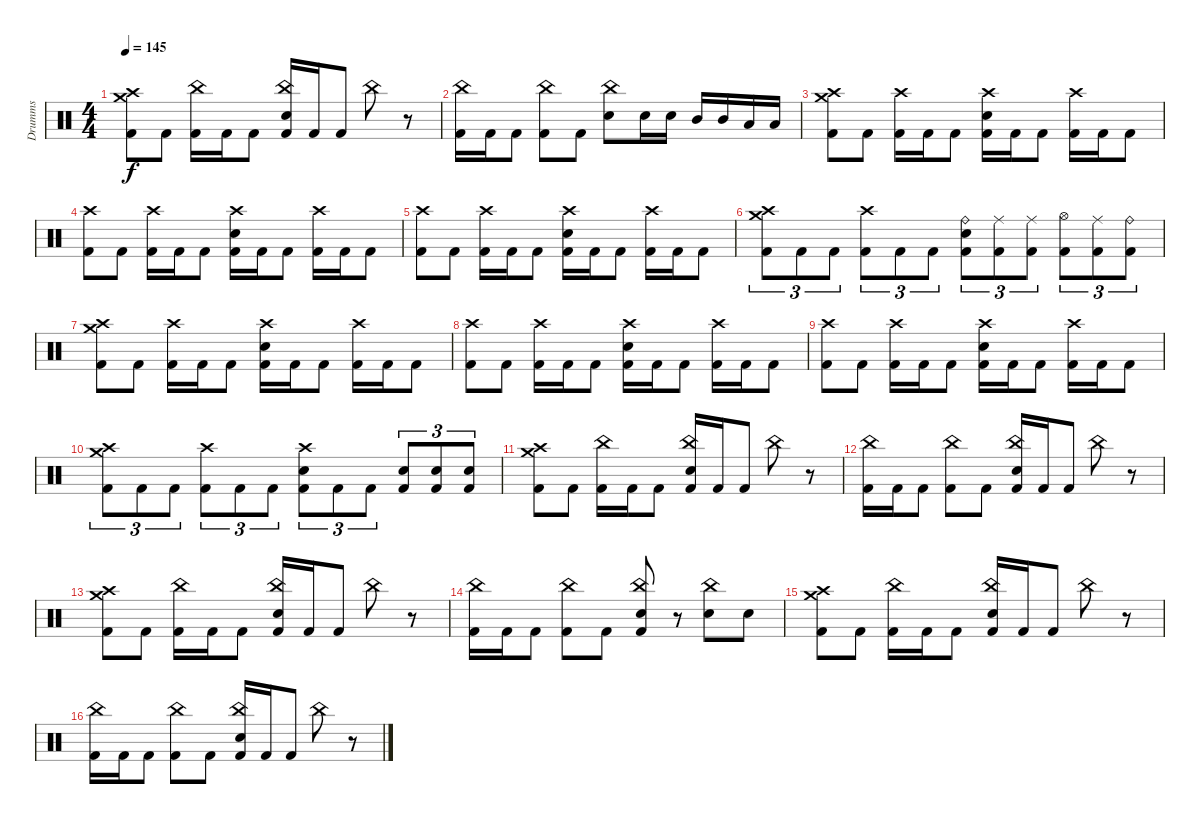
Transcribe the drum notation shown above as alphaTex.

\track ("Drumms" "Drumms") {instrument percussion}
\staff {score}
\articulation defaults
\ts (4 4)
\tempo 145
\clef neutral
\ks c
("Crash high (hit)" "Crash medium (hit)" "Kick (hit) 2").8{dy f} "Kick (hit) 2".8 ("China (hit)" "Kick (hit) 2").16 "Kick (hit) 2".16 "Kick (hit) 2".8 ("China (hit)" "Electric Snare (hit)" "Kick (hit) 2").16 "Kick (hit) 2".16 "Kick (hit) 2".8 "China (hit)".8 r.8 |
("China (hit)" "Kick (hit) 2").16 "Kick (hit) 2".16 "Kick (hit) 2".8 ("China (hit)" "Kick (hit) 2").8 "Kick (hit) 2".8 ("China (hit)" "Electric Snare (hit)").8 "Electric Snare (hit)".16 "Electric Snare (hit)".16 "Mid Tom (hit)".16 "Mid Tom (hit)".16 "Low Tom (hit)".16 "Low Tom (hit)".16 |
("Crash high (hit)" "Crash medium (hit)" "Kick (hit) 2").8 "Kick (hit) 2".8 ("Crash high (hit)" "Kick (hit) 2").16 "Kick (hit) 2".16 "Kick (hit) 2".8 ("Crash high (hit)" "Electric Snare (hit)" "Kick (hit) 2").16 "Kick (hit) 2".16 "Kick (hit) 2".8 ("Crash high (hit)" "Kick (hit) 2").16 "Kick (hit) 2".16 "Kick (hit) 2".8 |
("Crash high (hit)" "Kick (hit) 2").8 "Kick (hit) 2".8 ("Crash high (hit)" "Kick (hit) 2").16 "Kick (hit) 2".16 "Kick (hit) 2".8 ("Crash high (hit)" "Electric Snare (hit)" "Kick (hit) 2").16 "Kick (hit) 2".16 "Kick (hit) 2".8 ("Crash high (hit)" "Kick (hit) 2").16 "Kick (hit) 2".16 "Kick (hit) 2".8 |
("Crash high (hit)" "Kick (hit) 2").8 "Kick (hit) 2".8 ("Crash high (hit)" "Kick (hit) 2").16 "Kick (hit) 2".16 "Kick (hit) 2".8 ("Crash high (hit)" "Electric Snare (hit)" "Kick (hit) 2").16 "Kick (hit) 2".16 "Kick (hit) 2".8 ("Crash high (hit)" "Kick (hit) 2").16 "Kick (hit) 2".16 "Kick (hit) 2".8 |
("Crash medium (hit)" "Crash high (hit)" "Kick (hit) 2").8{tu (3 2)} "Kick (hit) 2".8{tu (3 2)} "Kick (hit) 2".8{tu (3 2)} ("Crash high (hit)" "Kick (hit) 2").8{tu (3 2)} "Kick (hit) 2".8{tu (3 2)} "Kick (hit) 2".8{tu (3 2)} ("Ride (bell)" "Electric Snare (hit)" "Kick (hit) 2").8{tu (3 2)} ("Ride (middle)" "Kick (hit) 2").8{tu (3 2)} ("Ride (middle)" "Kick (hit) 2").8{tu (3 2)} ("Hi-Hat (open)" "Kick (hit) 2").8{tu (3 2)} ("Ride (middle)" "Kick (hit) 2").8{tu (3 2)} ("Ride (bell)" "Kick (hit) 2").8{tu (3 2)} |
("Crash high (hit)" "Crash medium (hit)" "Kick (hit) 2").8 "Kick (hit) 2".8 ("Crash high (hit)" "Kick (hit) 2").16 "Kick (hit) 2".16 "Kick (hit) 2".8 ("Crash high (hit)" "Electric Snare (hit)" "Kick (hit) 2").16 "Kick (hit) 2".16 "Kick (hit) 2".8 ("Crash high (hit)" "Kick (hit) 2").16 "Kick (hit) 2".16 "Kick (hit) 2".8 |
("Crash high (hit)" "Kick (hit) 2").8 "Kick (hit) 2".8 ("Crash high (hit)" "Kick (hit) 2").16 "Kick (hit) 2".16 "Kick (hit) 2".8 ("Crash high (hit)" "Electric Snare (hit)" "Kick (hit) 2").16 "Kick (hit) 2".16 "Kick (hit) 2".8 ("Crash high (hit)" "Kick (hit) 2").16 "Kick (hit) 2".16 "Kick (hit) 2".8 |
("Crash high (hit)" "Kick (hit) 2").8 "Kick (hit) 2".8 ("Crash high (hit)" "Kick (hit) 2").16 "Kick (hit) 2".16 "Kick (hit) 2".8 ("Crash high (hit)" "Electric Snare (hit)" "Kick (hit) 2").16 "Kick (hit) 2".16 "Kick (hit) 2".8 ("Crash high (hit)" "Kick (hit) 2").16 "Kick (hit) 2".16 "Kick (hit) 2".8 |
("Crash medium (hit)" "Crash high (hit)" "Kick (hit) 2").8{tu (3 2)} "Kick (hit) 2".8{tu (3 2)} "Kick (hit) 2".8{tu (3 2)} ("Crash high (hit)" "Kick (hit) 2").8{tu (3 2)} "Kick (hit) 2".8{tu (3 2)} "Kick (hit) 2".8{tu (3 2)} ("Crash high (hit)" "Electric Snare (hit)" "Kick (hit) 2").8{tu (3 2)} "Kick (hit) 2".8{tu (3 2)} "Kick (hit) 2".8{tu (3 2)} ("Electric Snare (hit)" "Kick (hit) 2").8{tu (3 2)} ("Electric Snare (hit)" "Kick (hit) 2").8{tu (3 2)} ("Electric Snare (hit)" "Kick (hit) 2").8{tu (3 2)} |
("Crash high (hit)" "Crash medium (hit)" "Kick (hit) 2").8 "Kick (hit) 2".8 ("China (hit)" "Kick (hit) 2").16 "Kick (hit) 2".16 "Kick (hit) 2".8 ("China (hit)" "Electric Snare (hit)" "Kick (hit) 2").16 "Kick (hit) 2".16 "Kick (hit) 2".8 "China (hit)".8 r.8 |
("China (hit)" "Kick (hit) 2").16 "Kick (hit) 2".16 "Kick (hit) 2".8 ("China (hit)" "Kick (hit) 2").8 "Kick (hit) 2".8 ("China (hit)" "Electric Snare (hit)" "Kick (hit) 2").16 "Kick (hit) 2".16 "Kick (hit) 2".8 "China (hit)".8 r.8 |
("Crash high (hit)" "Crash medium (hit)" "Kick (hit) 2").8 "Kick (hit) 2".8 ("China (hit)" "Kick (hit) 2").16 "Kick (hit) 2".16 "Kick (hit) 2".8 ("China (hit)" "Electric Snare (hit)" "Kick (hit) 2").16 "Kick (hit) 2".16 "Kick (hit) 2".8 "China (hit)".8 r.8 |
("China (hit)" "Kick (hit) 2").16 "Kick (hit) 2".16 "Kick (hit) 2".8 ("China (hit)" "Kick (hit) 2").8 "Kick (hit) 2".8 ("China (hit)" "Electric Snare (hit)" "Kick (hit) 2").8 r.8 ("China (hit)" "Electric Snare (hit)").8 "Electric Snare (hit)".8 |
("Crash high (hit)" "Crash medium (hit)" "Kick (hit) 2").8 "Kick (hit) 2".8 ("China (hit)" "Kick (hit) 2").16 "Kick (hit) 2".16 "Kick (hit) 2".8 ("China (hit)" "Electric Snare (hit)" "Kick (hit) 2").16 "Kick (hit) 2".16 "Kick (hit) 2".8 "China (hit)".8 r.8 |
("China (hit)" "Kick (hit) 2").16 "Kick (hit) 2".16 "Kick (hit) 2".8 ("China (hit)" "Kick (hit) 2").8 "Kick (hit) 2".8 ("China (hit)" "Electric Snare (hit)" "Kick (hit) 2").16 "Kick (hit) 2".16 "Kick (hit) 2".8 "China (hit)".8 r.8
